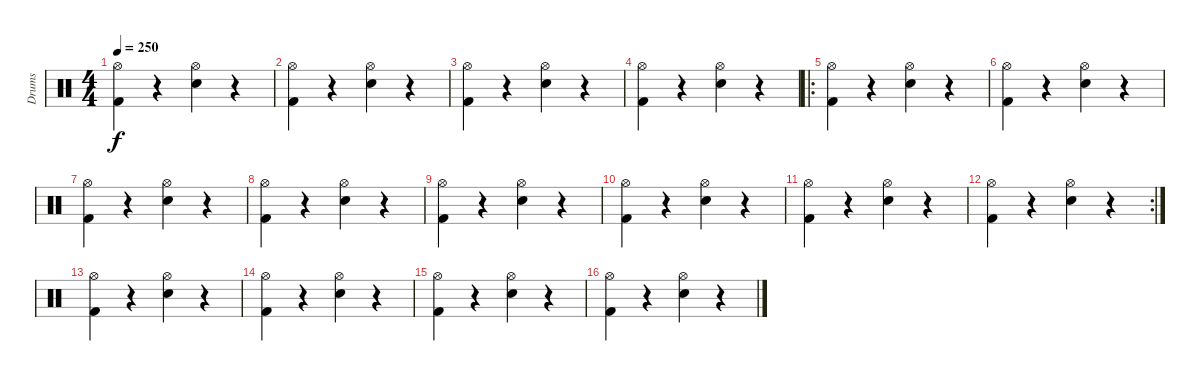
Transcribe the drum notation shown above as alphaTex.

\track ("Drums" "Drums") {instrument percussion}
\staff {score}
\articulation defaults
\ts (4 4)
\tempo 250
\clef neutral
\ks c
("Hi-Hat (open)" "Kick (hit) 2").4{dy f} r.4 ("Hi-Hat (open)" "Snare (hit) 2").4 r.4 |
("Hi-Hat (open)" "Kick (hit) 2").4 r.4 ("Hi-Hat (open)" "Snare (hit) 2").4 r.4 |
("Hi-Hat (open)" "Kick (hit) 2").4 r.4 ("Hi-Hat (open)" "Snare (hit) 2").4 r.4 |
("Hi-Hat (open)" "Kick (hit) 2").4 r.4 ("Hi-Hat (open)" "Snare (hit) 2").4 r.4 |
\ro
("Hi-Hat (open)" "Kick (hit) 2").4 r.4 ("Hi-Hat (open)" "Snare (hit) 2").4 r.4 |
("Hi-Hat (open)" "Kick (hit) 2").4 r.4 ("Hi-Hat (open)" "Snare (hit) 2").4 r.4 |
("Hi-Hat (open)" "Kick (hit) 2").4 r.4 ("Hi-Hat (open)" "Snare (hit) 2").4 r.4 |
("Hi-Hat (open)" "Kick (hit) 2").4 r.4 ("Hi-Hat (open)" "Snare (hit) 2").4 r.4 |
("Hi-Hat (open)" "Kick (hit) 2").4 r.4 ("Hi-Hat (open)" "Snare (hit) 2").4 r.4 |
("Hi-Hat (open)" "Kick (hit) 2").4 r.4 ("Hi-Hat (open)" "Snare (hit) 2").4 r.4 |
("Hi-Hat (open)" "Kick (hit) 2").4 r.4 ("Hi-Hat (open)" "Snare (hit) 2").4 r.4 |
\rc 2
("Hi-Hat (open)" "Kick (hit) 2").4 r.4 ("Hi-Hat (open)" "Snare (hit) 2").4 r.4 |
("Hi-Hat (open)" "Kick (hit) 2").4 r.4 ("Hi-Hat (open)" "Snare (hit) 2").4 r.4 |
("Hi-Hat (open)" "Kick (hit) 2").4 r.4 ("Hi-Hat (open)" "Snare (hit) 2").4 r.4 |
("Hi-Hat (open)" "Kick (hit) 2").4 r.4 ("Hi-Hat (open)" "Snare (hit) 2").4 r.4 |
("Hi-Hat (open)" "Kick (hit) 2").4 r.4 ("Hi-Hat (open)" "Snare (hit) 2").4 r.4
